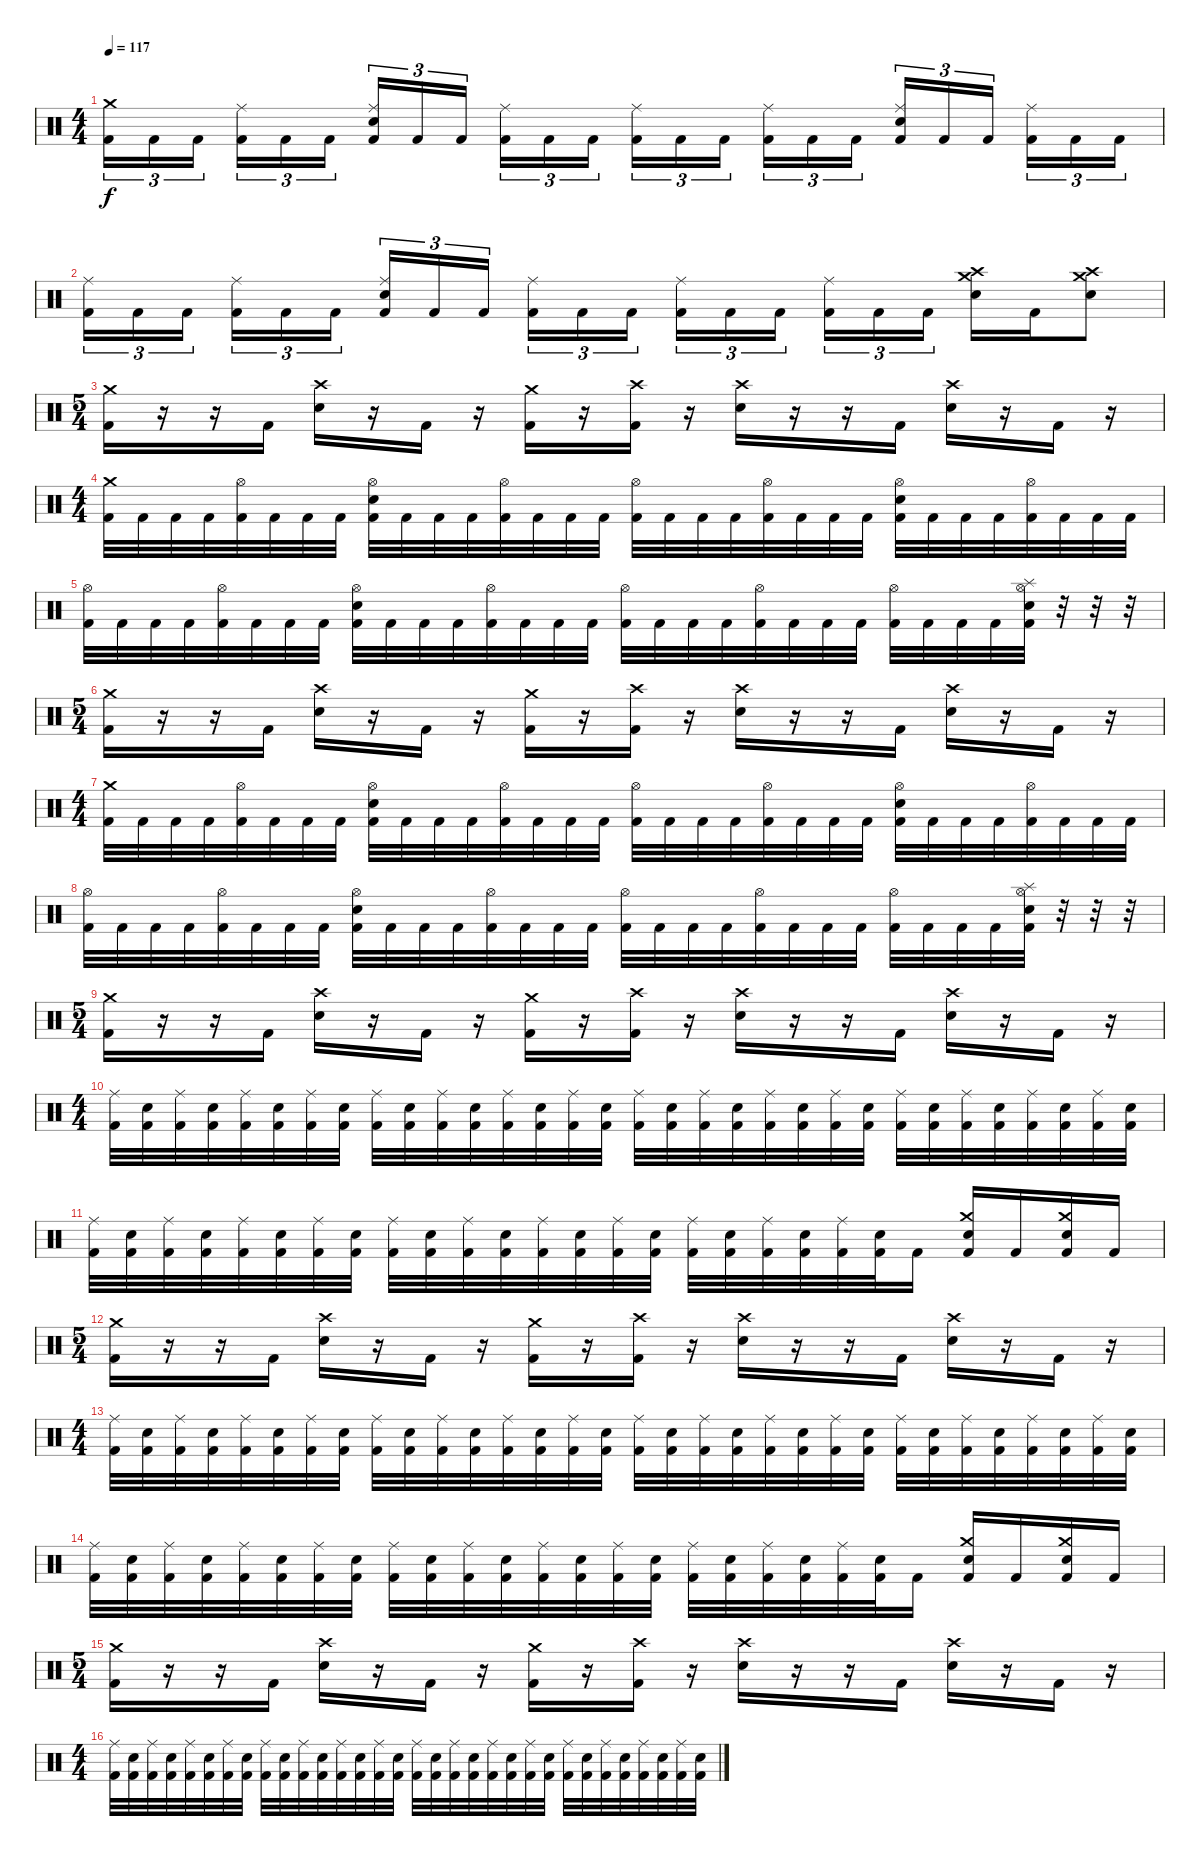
\track "" {instrument percussion}
\staff {score}
\articulation defaults
\ts (4 4)
\tempo 117
\clef neutral
\ks c
("Kick (hit) 2" "Crash medium (hit)").16{tu (3 2) dy f} "Kick (hit) 2".16{tu (3 2)} "Kick (hit) 2".16{tu (3 2)} ("Kick (hit) 2" "Ride (middle)").16{tu (3 2)} "Kick (hit) 2".16{tu (3 2)} "Kick (hit) 2".16{tu (3 2)} ("Kick (hit) 2" "Electric Snare (hit)" "Ride (middle)").16{tu (3 2)} "Kick (hit) 2".16{tu (3 2)} "Kick (hit) 2".16{tu (3 2)} ("Kick (hit) 2" "Ride (middle)").16{tu (3 2)} "Kick (hit) 2".16{tu (3 2)} "Kick (hit) 2".16{tu (3 2)} ("Kick (hit) 2" "Ride (middle)").16{tu (3 2)} "Kick (hit) 2".16{tu (3 2)} "Kick (hit) 2".16{tu (3 2)} ("Kick (hit) 2" "Ride (middle)").16{tu (3 2)} "Kick (hit) 2".16{tu (3 2)} "Kick (hit) 2".16{tu (3 2)} ("Kick (hit) 2" "Electric Snare (hit)" "Ride (middle)").16{tu (3 2)} "Kick (hit) 2".16{tu (3 2)} "Kick (hit) 2".16{tu (3 2)} ("Kick (hit) 2" "Ride (middle)").16{tu (3 2)} "Kick (hit) 2".16{tu (3 2)} "Kick (hit) 2".16{tu (3 2)} |
("Kick (hit) 2" "Ride (middle)").16{tu (3 2)} "Kick (hit) 2".16{tu (3 2)} "Kick (hit) 2".16{tu (3 2)} ("Kick (hit) 2" "Ride (middle)").16{tu (3 2)} "Kick (hit) 2".16{tu (3 2)} "Kick (hit) 2".16{tu (3 2)} ("Kick (hit) 2" "Electric Snare (hit)" "Ride (middle)").16{tu (3 2)} "Kick (hit) 2".16{tu (3 2)} "Kick (hit) 2".16{tu (3 2)} ("Kick (hit) 2" "Ride (middle)").16{tu (3 2)} "Kick (hit) 2".16{tu (3 2)} "Kick (hit) 2".16{tu (3 2)} ("Kick (hit) 2" "Ride (middle)").16{tu (3 2)} "Kick (hit) 2".16{tu (3 2)} "Kick (hit) 2".16{tu (3 2)} ("Kick (hit) 2" "Ride (middle)").16{tu (3 2)} "Kick (hit) 2".16{tu (3 2)} "Kick (hit) 2".16{tu (3 2)} ("Electric Snare (hit)" "Crash high (hit)" "Crash medium (hit)").16 "Kick (hit) 2".16 ("Electric Snare (hit)" "Crash high (hit)" "Crash medium (hit)").8 |
\ts (5 4)
("Kick (hit) 2" "Crash medium (hit)").16 r.16 r.16 "Kick (hit) 2".16 ("Electric Snare (hit)" "Crash high (hit)").16 r.16 "Kick (hit) 2".16 r.16 ("Kick (hit) 2" "Crash medium (hit)").16 r.16 ("Kick (hit) 2" "Crash high (hit)").16 r.16 ("Electric Snare (hit)" "Crash high (hit)").16 r.16 r.16 "Kick (hit) 2".16 ("Electric Snare (hit)" "Crash high (hit)").16 r.16 "Kick (hit) 2".16 r.16 |
\ts (4 4)
("Kick (hit) 2" "Crash medium (hit)").32 "Kick (hit) 2".32 "Kick (hit) 2".32 "Kick (hit) 2".32 ("Kick (hit) 2" "Hi-Hat (open)").32 "Kick (hit) 2".32 "Kick (hit) 2".32 "Kick (hit) 2".32 ("Kick (hit) 2" "Electric Snare (hit)" "Hi-Hat (open)").32 "Kick (hit) 2".32 "Kick (hit) 2".32 "Kick (hit) 2".32 ("Kick (hit) 2" "Hi-Hat (open)").32 "Kick (hit) 2".32 "Kick (hit) 2".32 "Kick (hit) 2".32 ("Kick (hit) 2" "Hi-Hat (open)").32 "Kick (hit) 2".32 "Kick (hit) 2".32 "Kick (hit) 2".32 ("Kick (hit) 2" "Hi-Hat (open)").32 "Kick (hit) 2".32 "Kick (hit) 2".32 "Kick (hit) 2".32 ("Kick (hit) 2" "Electric Snare (hit)" "Hi-Hat (open)").32 "Kick (hit) 2".32 "Kick (hit) 2".32 "Kick (hit) 2".32 ("Kick (hit) 2" "Hi-Hat (open)").32 "Kick (hit) 2".32 "Kick (hit) 2".32 "Kick (hit) 2".32 |
("Kick (hit) 2" "Hi-Hat (open)").32 "Kick (hit) 2".32 "Kick (hit) 2".32 "Kick (hit) 2".32 ("Kick (hit) 2" "Hi-Hat (open)").32 "Kick (hit) 2".32 "Kick (hit) 2".32 "Kick (hit) 2".32 ("Kick (hit) 2" "Electric Snare (hit)" "Hi-Hat (open)").32 "Kick (hit) 2".32 "Kick (hit) 2".32 "Kick (hit) 2".32 ("Kick (hit) 2" "Hi-Hat (open)").32 "Kick (hit) 2".32 "Kick (hit) 2".32 "Kick (hit) 2".32 ("Kick (hit) 2" "Hi-Hat (open)").32 "Kick (hit) 2".32 "Kick (hit) 2".32 "Kick (hit) 2".32 ("Kick (hit) 2" "Hi-Hat (open)").32 "Kick (hit) 2".32 "Kick (hit) 2".32 "Kick (hit) 2".32 ("Kick (hit) 2" "Hi-Hat (open)").32 "Kick (hit) 2".32 "Kick (hit) 2".32 "Kick (hit) 2".32 ("Kick (hit) 2" "Electric Snare (hit)" "Splash (hit)" "Hi-Hat (open)").32 r.32 r.32 r.32 |
\ts (5 4)
("Kick (hit) 2" "Crash medium (hit)").16 r.16 r.16 "Kick (hit) 2".16 ("Electric Snare (hit)" "Crash high (hit)").16 r.16 "Kick (hit) 2".16 r.16 ("Kick (hit) 2" "Crash medium (hit)").16 r.16 ("Kick (hit) 2" "Crash high (hit)").16 r.16 ("Electric Snare (hit)" "Crash high (hit)").16 r.16 r.16 "Kick (hit) 2".16 ("Electric Snare (hit)" "Crash high (hit)").16 r.16 "Kick (hit) 2".16 r.16 |
\ts (4 4)
("Kick (hit) 2" "Crash medium (hit)").32 "Kick (hit) 2".32 "Kick (hit) 2".32 "Kick (hit) 2".32 ("Kick (hit) 2" "Hi-Hat (open)").32 "Kick (hit) 2".32 "Kick (hit) 2".32 "Kick (hit) 2".32 ("Kick (hit) 2" "Electric Snare (hit)" "Hi-Hat (open)").32 "Kick (hit) 2".32 "Kick (hit) 2".32 "Kick (hit) 2".32 ("Kick (hit) 2" "Hi-Hat (open)").32 "Kick (hit) 2".32 "Kick (hit) 2".32 "Kick (hit) 2".32 ("Kick (hit) 2" "Hi-Hat (open)").32 "Kick (hit) 2".32 "Kick (hit) 2".32 "Kick (hit) 2".32 ("Kick (hit) 2" "Hi-Hat (open)").32 "Kick (hit) 2".32 "Kick (hit) 2".32 "Kick (hit) 2".32 ("Kick (hit) 2" "Electric Snare (hit)" "Hi-Hat (open)").32 "Kick (hit) 2".32 "Kick (hit) 2".32 "Kick (hit) 2".32 ("Kick (hit) 2" "Hi-Hat (open)").32 "Kick (hit) 2".32 "Kick (hit) 2".32 "Kick (hit) 2".32 |
("Kick (hit) 2" "Hi-Hat (open)").32 "Kick (hit) 2".32 "Kick (hit) 2".32 "Kick (hit) 2".32 ("Kick (hit) 2" "Hi-Hat (open)").32 "Kick (hit) 2".32 "Kick (hit) 2".32 "Kick (hit) 2".32 ("Kick (hit) 2" "Electric Snare (hit)" "Hi-Hat (open)").32 "Kick (hit) 2".32 "Kick (hit) 2".32 "Kick (hit) 2".32 ("Kick (hit) 2" "Hi-Hat (open)").32 "Kick (hit) 2".32 "Kick (hit) 2".32 "Kick (hit) 2".32 ("Kick (hit) 2" "Hi-Hat (open)").32 "Kick (hit) 2".32 "Kick (hit) 2".32 "Kick (hit) 2".32 ("Kick (hit) 2" "Hi-Hat (open)").32 "Kick (hit) 2".32 "Kick (hit) 2".32 "Kick (hit) 2".32 ("Kick (hit) 2" "Hi-Hat (open)").32 "Kick (hit) 2".32 "Kick (hit) 2".32 "Kick (hit) 2".32 ("Kick (hit) 2" "Electric Snare (hit)" "Splash (hit)" "Hi-Hat (open)").32 r.32 r.32 r.32 |
\ts (5 4)
("Kick (hit) 2" "Crash medium (hit)").16 r.16 r.16 "Kick (hit) 2".16 ("Electric Snare (hit)" "Crash high (hit)").16 r.16 "Kick (hit) 2".16 r.16 ("Kick (hit) 2" "Crash medium (hit)").16 r.16 ("Kick (hit) 2" "Crash high (hit)").16 r.16 ("Electric Snare (hit)" "Crash high (hit)").16 r.16 r.16 "Kick (hit) 2".16 ("Electric Snare (hit)" "Crash high (hit)").16 r.16 "Kick (hit) 2".16 r.16 |
\ts (4 4)
("Ride (middle)" "Kick (hit) 2").32 ("Electric Snare (hit)" "Kick (hit) 2").32 ("Ride (middle)" "Kick (hit) 2").32 ("Electric Snare (hit)" "Kick (hit) 2").32 ("Ride (middle)" "Kick (hit) 2").32 ("Electric Snare (hit)" "Kick (hit) 2").32 ("Ride (middle)" "Kick (hit) 2").32 ("Electric Snare (hit)" "Kick (hit) 2").32 ("Ride (middle)" "Kick (hit) 2").32 ("Electric Snare (hit)" "Kick (hit) 2").32 ("Ride (middle)" "Kick (hit) 2").32 ("Electric Snare (hit)" "Kick (hit) 2").32 ("Ride (middle)" "Kick (hit) 2").32 ("Electric Snare (hit)" "Kick (hit) 2").32 ("Ride (middle)" "Kick (hit) 2").32 ("Electric Snare (hit)" "Kick (hit) 2").32 ("Ride (middle)" "Kick (hit) 2").32 ("Electric Snare (hit)" "Kick (hit) 2").32 ("Ride (middle)" "Kick (hit) 2").32 ("Electric Snare (hit)" "Kick (hit) 2").32 ("Ride (middle)" "Kick (hit) 2").32 ("Electric Snare (hit)" "Kick (hit) 2").32 ("Ride (middle)" "Kick (hit) 2").32 ("Electric Snare (hit)" "Kick (hit) 2").32 ("Ride (middle)" "Kick (hit) 2").32 ("Electric Snare (hit)" "Kick (hit) 2").32 ("Ride (middle)" "Kick (hit) 2").32 ("Electric Snare (hit)" "Kick (hit) 2").32 ("Ride (middle)" "Kick (hit) 2").32 ("Electric Snare (hit)" "Kick (hit) 2").32 ("Ride (middle)" "Kick (hit) 2").32 ("Electric Snare (hit)" "Kick (hit) 2").32 |
("Ride (middle)" "Kick (hit) 2").32 ("Electric Snare (hit)" "Kick (hit) 2").32 ("Ride (middle)" "Kick (hit) 2").32 ("Electric Snare (hit)" "Kick (hit) 2").32 ("Ride (middle)" "Kick (hit) 2").32 ("Electric Snare (hit)" "Kick (hit) 2").32 ("Ride (middle)" "Kick (hit) 2").32 ("Electric Snare (hit)" "Kick (hit) 2").32 ("Ride (middle)" "Kick (hit) 2").32 ("Electric Snare (hit)" "Kick (hit) 2").32 ("Ride (middle)" "Kick (hit) 2").32 ("Electric Snare (hit)" "Kick (hit) 2").32 ("Ride (middle)" "Kick (hit) 2").32 ("Electric Snare (hit)" "Kick (hit) 2").32 ("Ride (middle)" "Kick (hit) 2").32 ("Electric Snare (hit)" "Kick (hit) 2").32 ("Ride (middle)" "Kick (hit) 2").32 ("Electric Snare (hit)" "Kick (hit) 2").32 ("Ride (middle)" "Kick (hit) 2").32 ("Electric Snare (hit)" "Kick (hit) 2").32 ("Ride (middle)" "Kick (hit) 2").32 ("Electric Snare (hit)" "Kick (hit) 2").32 "Kick (hit) 2".16 ("Electric Snare (hit)" "Crash medium (hit)" "Kick (hit) 2").16 "Kick (hit) 2".16 ("Electric Snare (hit)" "Crash medium (hit)" "Kick (hit) 2").16 "Kick (hit) 2".16 |
\ts (5 4)
("Kick (hit) 2" "Crash medium (hit)").16 r.16 r.16 "Kick (hit) 2".16 ("Electric Snare (hit)" "Crash high (hit)").16 r.16 "Kick (hit) 2".16 r.16 ("Kick (hit) 2" "Crash medium (hit)").16 r.16 ("Kick (hit) 2" "Crash high (hit)").16 r.16 ("Electric Snare (hit)" "Crash high (hit)").16 r.16 r.16 "Kick (hit) 2".16 ("Electric Snare (hit)" "Crash high (hit)").16 r.16 "Kick (hit) 2".16 r.16 |
\ts (4 4)
("Ride (middle)" "Kick (hit) 2").32 ("Electric Snare (hit)" "Kick (hit) 2").32 ("Ride (middle)" "Kick (hit) 2").32 ("Electric Snare (hit)" "Kick (hit) 2").32 ("Ride (middle)" "Kick (hit) 2").32 ("Electric Snare (hit)" "Kick (hit) 2").32 ("Ride (middle)" "Kick (hit) 2").32 ("Electric Snare (hit)" "Kick (hit) 2").32 ("Ride (middle)" "Kick (hit) 2").32 ("Electric Snare (hit)" "Kick (hit) 2").32 ("Ride (middle)" "Kick (hit) 2").32 ("Electric Snare (hit)" "Kick (hit) 2").32 ("Ride (middle)" "Kick (hit) 2").32 ("Electric Snare (hit)" "Kick (hit) 2").32 ("Ride (middle)" "Kick (hit) 2").32 ("Electric Snare (hit)" "Kick (hit) 2").32 ("Ride (middle)" "Kick (hit) 2").32 ("Electric Snare (hit)" "Kick (hit) 2").32 ("Ride (middle)" "Kick (hit) 2").32 ("Electric Snare (hit)" "Kick (hit) 2").32 ("Ride (middle)" "Kick (hit) 2").32 ("Electric Snare (hit)" "Kick (hit) 2").32 ("Ride (middle)" "Kick (hit) 2").32 ("Electric Snare (hit)" "Kick (hit) 2").32 ("Ride (middle)" "Kick (hit) 2").32 ("Electric Snare (hit)" "Kick (hit) 2").32 ("Ride (middle)" "Kick (hit) 2").32 ("Electric Snare (hit)" "Kick (hit) 2").32 ("Ride (middle)" "Kick (hit) 2").32 ("Electric Snare (hit)" "Kick (hit) 2").32 ("Ride (middle)" "Kick (hit) 2").32 ("Electric Snare (hit)" "Kick (hit) 2").32 |
("Ride (middle)" "Kick (hit) 2").32 ("Electric Snare (hit)" "Kick (hit) 2").32 ("Ride (middle)" "Kick (hit) 2").32 ("Electric Snare (hit)" "Kick (hit) 2").32 ("Ride (middle)" "Kick (hit) 2").32 ("Electric Snare (hit)" "Kick (hit) 2").32 ("Ride (middle)" "Kick (hit) 2").32 ("Electric Snare (hit)" "Kick (hit) 2").32 ("Ride (middle)" "Kick (hit) 2").32 ("Electric Snare (hit)" "Kick (hit) 2").32 ("Ride (middle)" "Kick (hit) 2").32 ("Electric Snare (hit)" "Kick (hit) 2").32 ("Ride (middle)" "Kick (hit) 2").32 ("Electric Snare (hit)" "Kick (hit) 2").32 ("Ride (middle)" "Kick (hit) 2").32 ("Electric Snare (hit)" "Kick (hit) 2").32 ("Ride (middle)" "Kick (hit) 2").32 ("Electric Snare (hit)" "Kick (hit) 2").32 ("Ride (middle)" "Kick (hit) 2").32 ("Electric Snare (hit)" "Kick (hit) 2").32 ("Ride (middle)" "Kick (hit) 2").32 ("Electric Snare (hit)" "Kick (hit) 2").32 "Kick (hit) 2".16 ("Electric Snare (hit)" "Crash medium (hit)" "Kick (hit) 2").16 "Kick (hit) 2".16 ("Electric Snare (hit)" "Crash medium (hit)" "Kick (hit) 2").16 "Kick (hit) 2".16 |
\ts (5 4)
("Kick (hit) 2" "Crash medium (hit)").16 r.16 r.16 "Kick (hit) 2".16 ("Electric Snare (hit)" "Crash high (hit)").16 r.16 "Kick (hit) 2".16 r.16 ("Kick (hit) 2" "Crash medium (hit)").16 r.16 ("Kick (hit) 2" "Crash high (hit)").16 r.16 ("Electric Snare (hit)" "Crash high (hit)").16 r.16 r.16 "Kick (hit) 2".16 ("Electric Snare (hit)" "Crash high (hit)").16 r.16 "Kick (hit) 2".16 r.16 |
\ts (4 4)
("Ride (middle)" "Kick (hit) 2").32 ("Electric Snare (hit)" "Kick (hit) 2").32 ("Ride (middle)" "Kick (hit) 2").32 ("Electric Snare (hit)" "Kick (hit) 2").32 ("Ride (middle)" "Kick (hit) 2").32 ("Electric Snare (hit)" "Kick (hit) 2").32 ("Ride (middle)" "Kick (hit) 2").32 ("Electric Snare (hit)" "Kick (hit) 2").32 ("Ride (middle)" "Kick (hit) 2").32 ("Electric Snare (hit)" "Kick (hit) 2").32 ("Ride (middle)" "Kick (hit) 2").32 ("Electric Snare (hit)" "Kick (hit) 2").32 ("Ride (middle)" "Kick (hit) 2").32 ("Electric Snare (hit)" "Kick (hit) 2").32 ("Ride (middle)" "Kick (hit) 2").32 ("Electric Snare (hit)" "Kick (hit) 2").32 ("Ride (middle)" "Kick (hit) 2").32 ("Electric Snare (hit)" "Kick (hit) 2").32 ("Ride (middle)" "Kick (hit) 2").32 ("Electric Snare (hit)" "Kick (hit) 2").32 ("Ride (middle)" "Kick (hit) 2").32 ("Electric Snare (hit)" "Kick (hit) 2").32 ("Ride (middle)" "Kick (hit) 2").32 ("Electric Snare (hit)" "Kick (hit) 2").32 ("Ride (middle)" "Kick (hit) 2").32 ("Electric Snare (hit)" "Kick (hit) 2").32 ("Ride (middle)" "Kick (hit) 2").32 ("Electric Snare (hit)" "Kick (hit) 2").32 ("Ride (middle)" "Kick (hit) 2").32 ("Electric Snare (hit)" "Kick (hit) 2").32 ("Ride (middle)" "Kick (hit) 2").32 ("Electric Snare (hit)" "Kick (hit) 2").32
